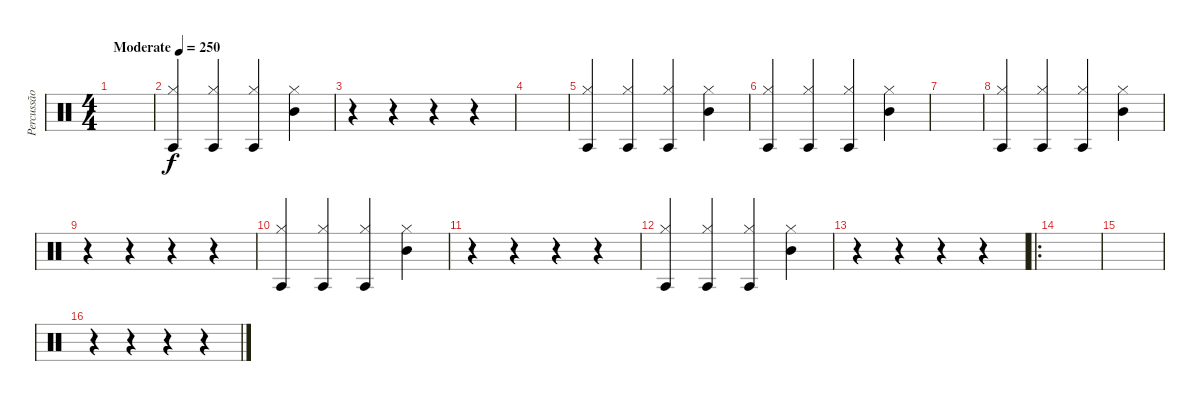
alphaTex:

\track ("Percussão" "Percussão") {instrument percussion}
\staff {score}
\articulation defaults
\ts (4 4)
\tempo (250 "Moderate")
\clef neutral
\ks c
|
("Agogo tow (hit)" "Hi-Hat (closed)").4 ("Agogo tow (hit)" "Hi-Hat (closed)").4 ("Agogo tow (hit)" "Hi-Hat (closed)").4 ("Mid Tom (hit)" "Hi-Hat (closed)").4 |
r.4 r.4 r.4 r.4 |
|
("Agogo tow (hit)" "Hi-Hat (closed)").4 ("Agogo tow (hit)" "Hi-Hat (closed)").4 ("Agogo tow (hit)" "Hi-Hat (closed)").4 ("Mid Tom (hit)" "Hi-Hat (closed)").4 |
("Agogo tow (hit)" "Hi-Hat (closed)").4 ("Agogo tow (hit)" "Hi-Hat (closed)").4 ("Agogo tow (hit)" "Hi-Hat (closed)").4 ("Mid Tom (hit)" "Hi-Hat (closed)").4 |
|
("Agogo tow (hit)" "Hi-Hat (closed)").4 ("Agogo tow (hit)" "Hi-Hat (closed)").4 ("Agogo tow (hit)" "Hi-Hat (closed)").4 ("Mid Tom (hit)" "Hi-Hat (closed)").4 |
r.4 r.4 r.4 r.4 |
("Agogo tow (hit)" "Hi-Hat (closed)").4 ("Agogo tow (hit)" "Hi-Hat (closed)").4 ("Agogo tow (hit)" "Hi-Hat (closed)").4 ("Mid Tom (hit)" "Hi-Hat (closed)").4 |
r.4 r.4 r.4 r.4 |
("Agogo tow (hit)" "Hi-Hat (closed)").4 ("Agogo tow (hit)" "Hi-Hat (closed)").4 ("Agogo tow (hit)" "Hi-Hat (closed)").4 ("Mid Tom (hit)" "Hi-Hat (closed)").4 |
r.4 r.4 r.4 r.4 |
\ro
|
|
r.4 r.4 r.4 r.4
